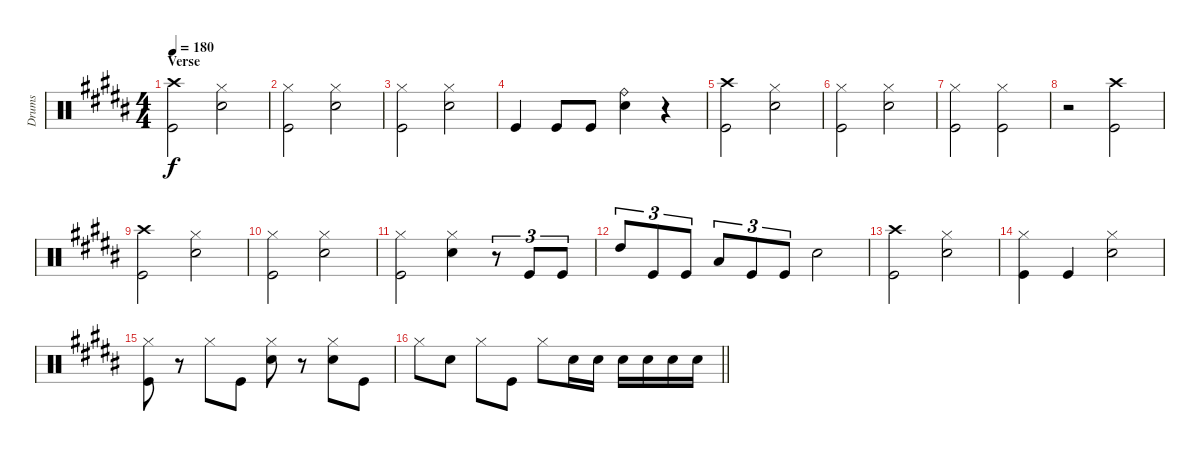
\track ("Drums" "Drums") {instrument percussion}
\staff {score}
\articulation defaults
\ts (4 4)
\section ("" "Verse")
\tempo 180
\clef neutral
\ks b
("Crash high (hit)" "Kick (hit)").2{dy f} ("Hi-Hat (closed)" "Snare (hit) 2").2 |
("Hi-Hat (closed)" "Kick (hit)").2 ("Hi-Hat (closed)" "Snare (hit) 2").2 |
("Hi-Hat (closed)" "Kick (hit)").2 ("Hi-Hat (closed)" "Snare (hit) 2").2 |
"Kick (hit)".4 "Kick (hit)".8 "Kick (hit)".8 ("Ride (bell)" "Snare (hit) 2").4 r.4 |
("Crash high (hit)" "Kick (hit)").2 ("Hi-Hat (closed)" "Snare (hit) 2").2 |
("Hi-Hat (closed)" "Kick (hit)").2 ("Hi-Hat (closed)" "Snare (hit) 2").2 |
("Hi-Hat (closed)" "Kick (hit)").2 ("Hi-Hat (closed)" "Kick (hit)").2 |
r.2 ("Crash high (hit)" "Kick (hit)").2 |
("Crash high (hit)" "Kick (hit)").2 ("Hi-Hat (closed)" "Snare (hit) 2").2 |
("Hi-Hat (closed)" "Kick (hit)").2 ("Hi-Hat (closed)" "Snare (hit) 2").2 |
("Hi-Hat (closed)" "Kick (hit)").2 ("Hi-Hat (closed)" "Snare (hit) 2").4 r.8{tu (3 2)} "Kick (hit)".8{tu (3 2)} "Kick (hit)".8{tu (3 2)} |
"High Tom (hit)".8{tu (3 2)} "Kick (hit)".8{tu (3 2)} "Kick (hit)".8{tu (3 2)} "Low Tom (hit)".8{tu (3 2)} "Kick (hit)".8{tu (3 2)} "Kick (hit)".8{tu (3 2)} "Snare (hit) 2".2 |
("Crash high (hit)" "Kick (hit)").2 ("Hi-Hat (closed)" "Snare (hit) 2").2 |
("Hi-Hat (closed)" "Kick (hit)").4 "Kick (hit)".4 ("Hi-Hat (closed)" "Snare (hit) 2").2 |
("Hi-Hat (closed)" "Kick (hit)").8 r.8 "Hi-Hat (closed)".8 "Kick (hit)".8 ("Hi-Hat (closed)" "Snare (hit) 2").8 r.8 ("Hi-Hat (closed)" "Snare (hit) 2").8 "Kick (hit)".8 |
\barLineRight lightlight "Hi-Hat (closed)".8 "Snare (hit) 2".8 "Hi-Hat (closed)".8 "Kick (hit)".8 "Hi-Hat (closed)".8 "Snare (hit) 2".16 "Snare (hit) 2".16 "Snare (hit) 2".16 "Snare (hit) 2".16 "Snare (hit) 2".16 "Snare (hit) 2".16
